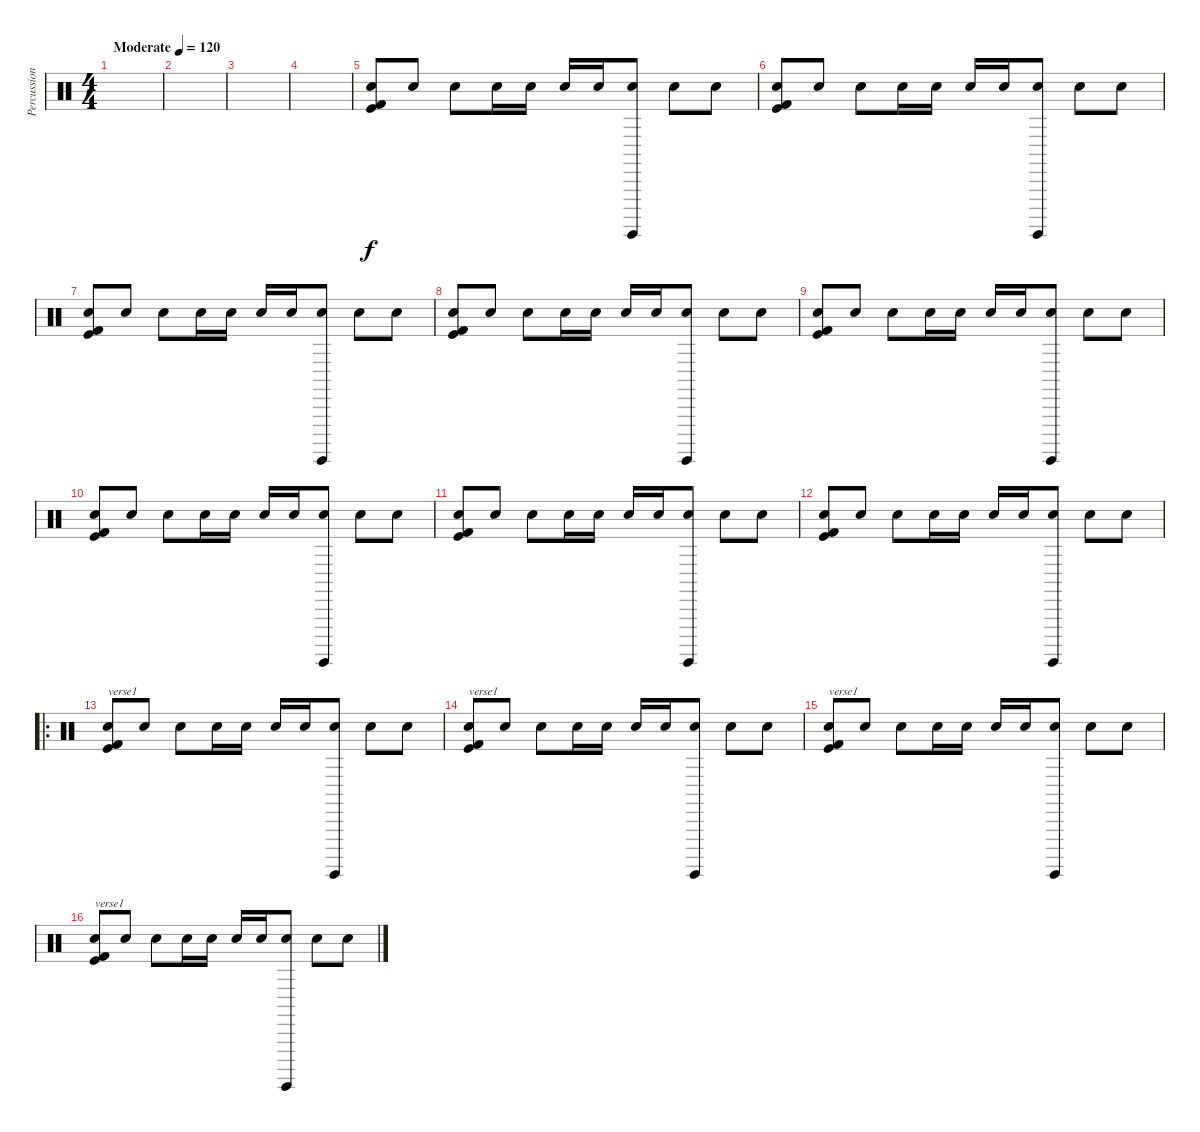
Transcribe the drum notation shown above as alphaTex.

\track ("Percussion" "Percussion") {instrument percussion}
\staff {score}
\articulation defaults
\ts (4 4)
\tempo (120 "Moderate")
\clef neutral
\ks c
|
|
|
|
("Hand Clap (hit)" "Kick (hit)" "Kick (hit) 2").8 "Hand Clap (hit)".8 "Hand Clap (hit)".8 "Hand Clap (hit)".16 "Hand Clap (hit)".16 "Hand Clap (hit)".16 "Hand Clap (hit)".16 ("Hand Clap (hit)" "Surdo (hit)").8 "Hand Clap (hit)".8 "Hand Clap (hit)".8 |
("Hand Clap (hit)" "Kick (hit)" "Kick (hit) 2").8 "Hand Clap (hit)".8 "Hand Clap (hit)".8 "Hand Clap (hit)".16 "Hand Clap (hit)".16 "Hand Clap (hit)".16 "Hand Clap (hit)".16 ("Hand Clap (hit)" "Surdo (hit)").8 "Hand Clap (hit)".8 "Hand Clap (hit)".8 |
("Hand Clap (hit)" "Kick (hit)" "Kick (hit) 2").8 "Hand Clap (hit)".8 "Hand Clap (hit)".8 "Hand Clap (hit)".16 "Hand Clap (hit)".16 "Hand Clap (hit)".16 "Hand Clap (hit)".16 ("Hand Clap (hit)" "Surdo (hit)").8 "Hand Clap (hit)".8 "Hand Clap (hit)".8 |
("Hand Clap (hit)" "Kick (hit)" "Kick (hit) 2").8 "Hand Clap (hit)".8 "Hand Clap (hit)".8 "Hand Clap (hit)".16 "Hand Clap (hit)".16 "Hand Clap (hit)".16 "Hand Clap (hit)".16 ("Hand Clap (hit)" "Surdo (hit)").8 "Hand Clap (hit)".8 "Hand Clap (hit)".8 |
("Hand Clap (hit)" "Kick (hit)" "Kick (hit) 2").8 "Hand Clap (hit)".8 "Hand Clap (hit)".8 "Hand Clap (hit)".16 "Hand Clap (hit)".16 "Hand Clap (hit)".16 "Hand Clap (hit)".16 ("Hand Clap (hit)" "Surdo (hit)").8 "Hand Clap (hit)".8 "Hand Clap (hit)".8 |
("Hand Clap (hit)" "Kick (hit)" "Kick (hit) 2").8 "Hand Clap (hit)".8 "Hand Clap (hit)".8 "Hand Clap (hit)".16 "Hand Clap (hit)".16 "Hand Clap (hit)".16 "Hand Clap (hit)".16 ("Hand Clap (hit)" "Surdo (hit)").8 "Hand Clap (hit)".8 "Hand Clap (hit)".8 |
("Hand Clap (hit)" "Kick (hit)" "Kick (hit) 2").8 "Hand Clap (hit)".8 "Hand Clap (hit)".8 "Hand Clap (hit)".16 "Hand Clap (hit)".16 "Hand Clap (hit)".16 "Hand Clap (hit)".16 ("Hand Clap (hit)" "Surdo (hit)").8 "Hand Clap (hit)".8 "Hand Clap (hit)".8 |
("Hand Clap (hit)" "Kick (hit)" "Kick (hit) 2").8 "Hand Clap (hit)".8 "Hand Clap (hit)".8 "Hand Clap (hit)".16 "Hand Clap (hit)".16 "Hand Clap (hit)".16 "Hand Clap (hit)".16 ("Hand Clap (hit)" "Surdo (hit)").8 "Hand Clap (hit)".8 "Hand Clap (hit)".8 |
\ro
("Hand Clap (hit)" "Kick (hit)" "Kick (hit) 2").8{txt "verse1"} "Hand Clap (hit)".8 "Hand Clap (hit)".8 "Hand Clap (hit)".16 "Hand Clap (hit)".16 "Hand Clap (hit)".16 "Hand Clap (hit)".16 ("Hand Clap (hit)" "Surdo (hit)").8 "Hand Clap (hit)".8 "Hand Clap (hit)".8 |
("Hand Clap (hit)" "Kick (hit)" "Kick (hit) 2").8{txt "verse1"} "Hand Clap (hit)".8 "Hand Clap (hit)".8 "Hand Clap (hit)".16 "Hand Clap (hit)".16 "Hand Clap (hit)".16 "Hand Clap (hit)".16 ("Hand Clap (hit)" "Surdo (hit)").8 "Hand Clap (hit)".8 "Hand Clap (hit)".8 |
("Hand Clap (hit)" "Kick (hit)" "Kick (hit) 2").8{txt "verse1"} "Hand Clap (hit)".8 "Hand Clap (hit)".8 "Hand Clap (hit)".16 "Hand Clap (hit)".16 "Hand Clap (hit)".16 "Hand Clap (hit)".16 ("Hand Clap (hit)" "Surdo (hit)").8 "Hand Clap (hit)".8 "Hand Clap (hit)".8 |
("Hand Clap (hit)" "Kick (hit)" "Kick (hit) 2").8{txt "verse1"} "Hand Clap (hit)".8 "Hand Clap (hit)".8 "Hand Clap (hit)".16 "Hand Clap (hit)".16 "Hand Clap (hit)".16 "Hand Clap (hit)".16 ("Hand Clap (hit)" "Surdo (hit)").8 "Hand Clap (hit)".8 "Hand Clap (hit)".8
